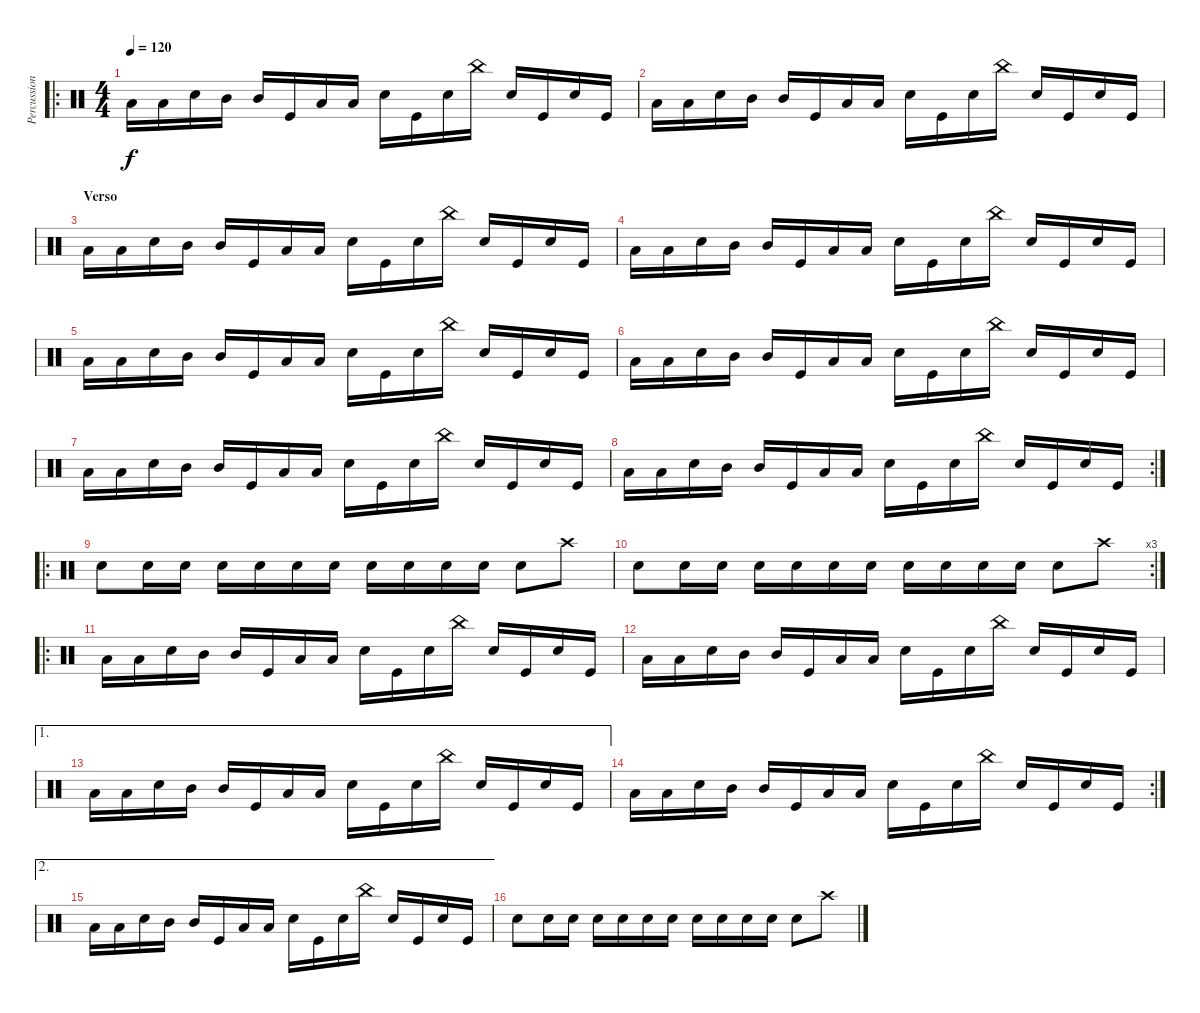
\track ("Percussion" "Percussion") {instrument percussion}
\staff {score}
\articulation defaults
\ro
\ts (4 4)
\tempo 120
\clef neutral
\ks c "Low Tom (hit)".16{dy f} "Low Tom (hit)".16 "Electric Snare (hit)".16 "Mid Tom (hit)".16 "Mid Tom (hit)".16 "Kick (hit)".16 "Low Tom (hit)".16 "Low Tom (hit)".16 "Electric Snare (hit)".16 "Kick (hit)".16 "Electric Snare (hit)".16 "China (hit)".16 "Electric Snare (hit)".16 "Kick (hit)".16 "Electric Snare (hit)".16 "Kick (hit)".16
|
"Low Tom (hit)".16 "Low Tom (hit)".16 "Electric Snare (hit)".16 "Mid Tom (hit)".16 "Mid Tom (hit)".16 "Kick (hit)".16 "Low Tom (hit)".16 "Low Tom (hit)".16 "Electric Snare (hit)".16 "Kick (hit)".16 "Electric Snare (hit)".16 "China (hit)".16 "Electric Snare (hit)".16 "Kick (hit)".16 "Electric Snare (hit)".16 "Kick (hit)".16 |
\section ("" "Verso")
"Low Tom (hit)".16 "Low Tom (hit)".16 "Electric Snare (hit)".16 "Mid Tom (hit)".16 "Mid Tom (hit)".16 "Kick (hit)".16 "Low Tom (hit)".16 "Low Tom (hit)".16 "Electric Snare (hit)".16 "Kick (hit)".16 "Electric Snare (hit)".16 "China (hit)".16 "Electric Snare (hit)".16 "Kick (hit)".16 "Electric Snare (hit)".16 "Kick (hit)".16 |
"Low Tom (hit)".16 "Low Tom (hit)".16 "Electric Snare (hit)".16 "Mid Tom (hit)".16 "Mid Tom (hit)".16 "Kick (hit)".16 "Low Tom (hit)".16 "Low Tom (hit)".16 "Electric Snare (hit)".16 "Kick (hit)".16 "Electric Snare (hit)".16 "China (hit)".16 "Electric Snare (hit)".16 "Kick (hit)".16 "Electric Snare (hit)".16 "Kick (hit)".16 |
"Low Tom (hit)".16 "Low Tom (hit)".16 "Electric Snare (hit)".16 "Mid Tom (hit)".16 "Mid Tom (hit)".16 "Kick (hit)".16 "Low Tom (hit)".16 "Low Tom (hit)".16 "Electric Snare (hit)".16 "Kick (hit)".16 "Electric Snare (hit)".16 "China (hit)".16 "Electric Snare (hit)".16 "Kick (hit)".16 "Electric Snare (hit)".16 "Kick (hit)".16 |
"Low Tom (hit)".16 "Low Tom (hit)".16 "Electric Snare (hit)".16 "Mid Tom (hit)".16 "Mid Tom (hit)".16 "Kick (hit)".16 "Low Tom (hit)".16 "Low Tom (hit)".16 "Electric Snare (hit)".16 "Kick (hit)".16 "Electric Snare (hit)".16 "China (hit)".16 "Electric Snare (hit)".16 "Kick (hit)".16 "Electric Snare (hit)".16 "Kick (hit)".16 |
"Low Tom (hit)".16 "Low Tom (hit)".16 "Electric Snare (hit)".16 "Mid Tom (hit)".16 "Mid Tom (hit)".16 "Kick (hit)".16 "Low Tom (hit)".16 "Low Tom (hit)".16 "Electric Snare (hit)".16 "Kick (hit)".16 "Electric Snare (hit)".16 "China (hit)".16 "Electric Snare (hit)".16 "Kick (hit)".16 "Electric Snare (hit)".16 "Kick (hit)".16 |
\rc 2 "Low Tom (hit)".16 "Low Tom (hit)".16 "Electric Snare (hit)".16 "Mid Tom (hit)".16 "Mid Tom (hit)".16 "Kick (hit)".16 "Low Tom (hit)".16 "Low Tom (hit)".16 "Electric Snare (hit)".16 "Kick (hit)".16 "Electric Snare (hit)".16 "China (hit)".16 "Electric Snare (hit)".16 "Kick (hit)".16 "Electric Snare (hit)".16 "Kick (hit)".16
|
\ro "Electric Snare (hit)".8 "Electric Snare (hit)".16 "Electric Snare (hit)".16 "Electric Snare (hit)".16 "Electric Snare (hit)".16 "Electric Snare (hit)".16 "Electric Snare (hit)".16 "Electric Snare (hit)".16 "Electric Snare (hit)".16 "Electric Snare (hit)".16 "Electric Snare (hit)".16 "Electric Snare (hit)".8 "Crash high (hit)".8
|
\rc 3 "Electric Snare (hit)".8 "Electric Snare (hit)".16 "Electric Snare (hit)".16 "Electric Snare (hit)".16 "Electric Snare (hit)".16 "Electric Snare (hit)".16 "Electric Snare (hit)".16 "Electric Snare (hit)".16 "Electric Snare (hit)".16 "Electric Snare (hit)".16 "Electric Snare (hit)".16 "Electric Snare (hit)".8 "Crash high (hit)".8
|
\ro "Low Tom (hit)".16 "Low Tom (hit)".16 "Electric Snare (hit)".16 "Mid Tom (hit)".16 "Mid Tom (hit)".16 "Kick (hit)".16 "Low Tom (hit)".16 "Low Tom (hit)".16 "Electric Snare (hit)".16 "Kick (hit)".16 "Electric Snare (hit)".16 "China (hit)".16 "Electric Snare (hit)".16 "Kick (hit)".16 "Electric Snare (hit)".16 "Kick (hit)".16
|
"Low Tom (hit)".16 "Low Tom (hit)".16 "Electric Snare (hit)".16 "Mid Tom (hit)".16 "Mid Tom (hit)".16 "Kick (hit)".16 "Low Tom (hit)".16 "Low Tom (hit)".16 "Electric Snare (hit)".16 "Kick (hit)".16 "Electric Snare (hit)".16 "China (hit)".16 "Electric Snare (hit)".16 "Kick (hit)".16 "Electric Snare (hit)".16 "Kick (hit)".16 |
\ae 1 "Low Tom (hit)".16 "Low Tom (hit)".16 "Electric Snare (hit)".16 "Mid Tom (hit)".16 "Mid Tom (hit)".16 "Kick (hit)".16 "Low Tom (hit)".16 "Low Tom (hit)".16 "Electric Snare (hit)".16 "Kick (hit)".16 "Electric Snare (hit)".16 "China (hit)".16 "Electric Snare (hit)".16 "Kick (hit)".16 "Electric Snare (hit)".16 "Kick (hit)".16
|
\rc 2 "Low Tom (hit)".16 "Low Tom (hit)".16 "Electric Snare (hit)".16 "Mid Tom (hit)".16 "Mid Tom (hit)".16 "Kick (hit)".16 "Low Tom (hit)".16 "Low Tom (hit)".16 "Electric Snare (hit)".16 "Kick (hit)".16 "Electric Snare (hit)".16 "China (hit)".16 "Electric Snare (hit)".16 "Kick (hit)".16 "Electric Snare (hit)".16 "Kick (hit)".16
|
\ae 2 "Low Tom (hit)".16 "Low Tom (hit)".16 "Electric Snare (hit)".16 "Mid Tom (hit)".16 "Mid Tom (hit)".16 "Kick (hit)".16 "Low Tom (hit)".16 "Low Tom (hit)".16 "Electric Snare (hit)".16 "Kick (hit)".16 "Electric Snare (hit)".16 "China (hit)".16 "Electric Snare (hit)".16 "Kick (hit)".16 "Electric Snare (hit)".16 "Kick (hit)".16
|
"Electric Snare (hit)".8 "Electric Snare (hit)".16 "Electric Snare (hit)".16 "Electric Snare (hit)".16 "Electric Snare (hit)".16 "Electric Snare (hit)".16 "Electric Snare (hit)".16 "Electric Snare (hit)".16 "Electric Snare (hit)".16 "Electric Snare (hit)".16 "Electric Snare (hit)".16 "Electric Snare (hit)".8 "Crash high (hit)".8
